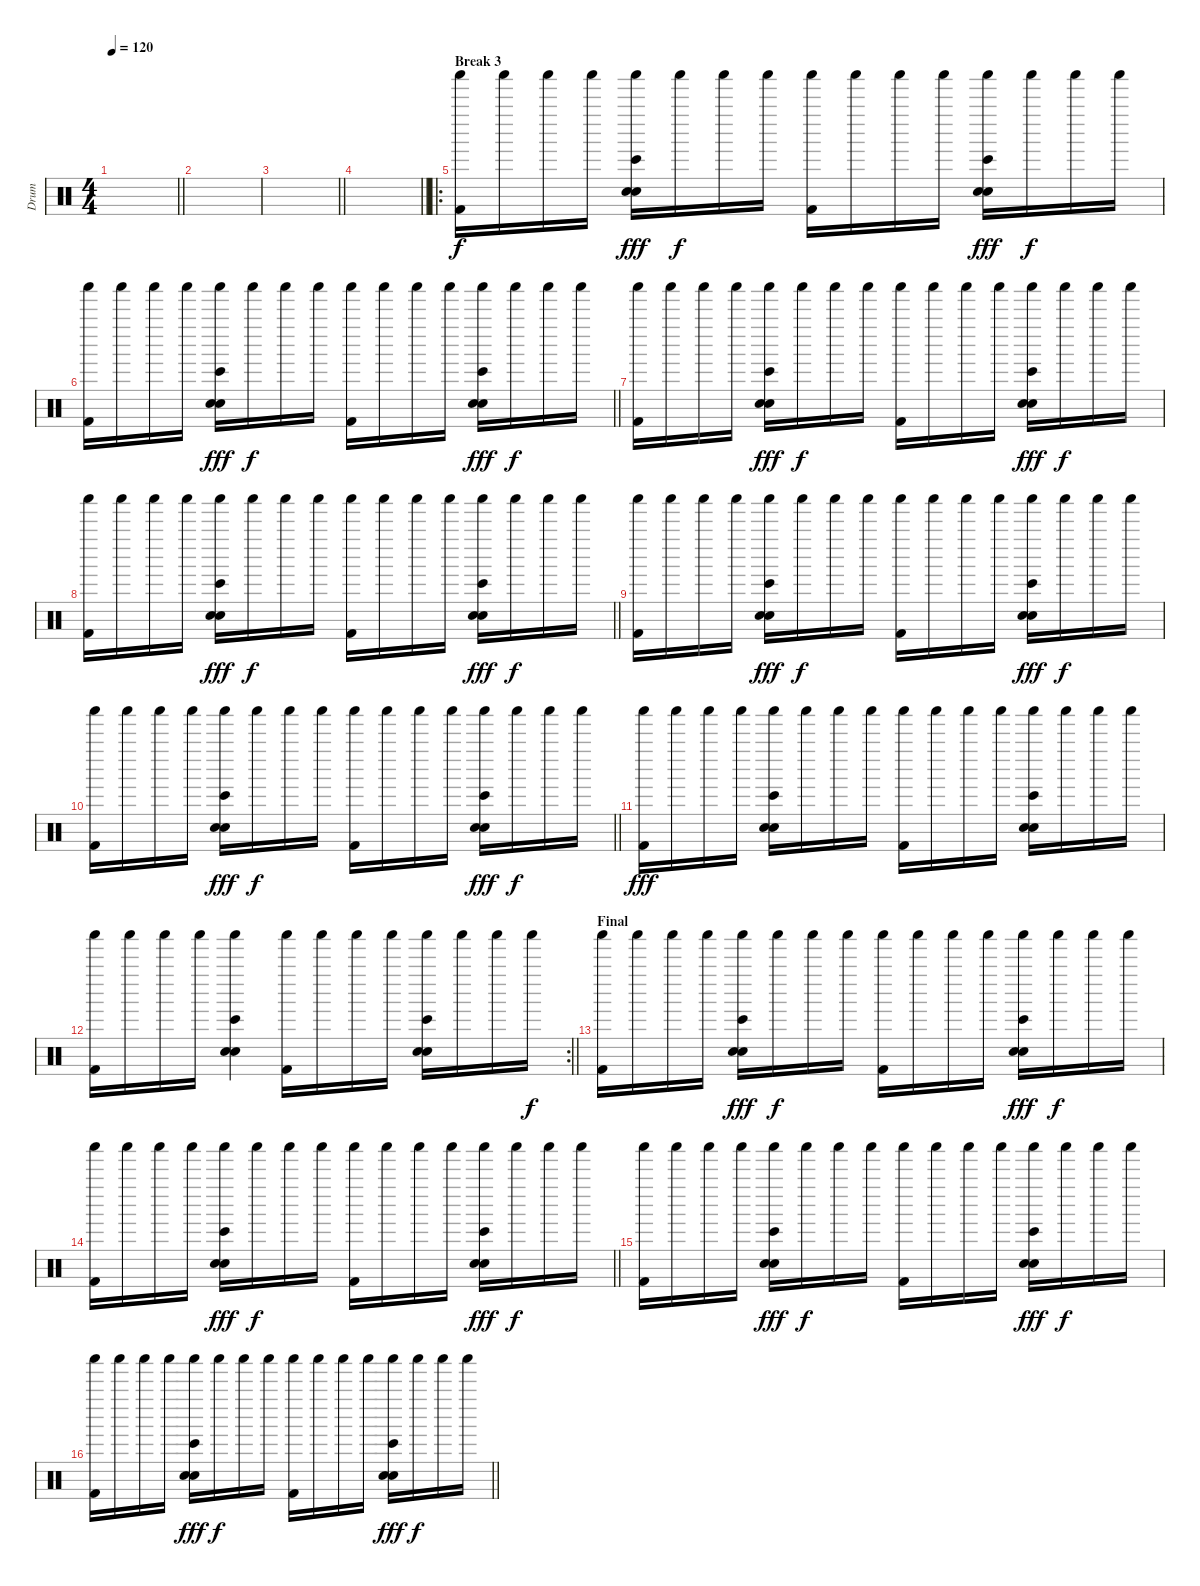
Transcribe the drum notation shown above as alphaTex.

\track ("Drum" "Drum") {instrument percussion}
\staff {score}
\articulation defaults
\ts (4 4)
\tempo 120
\clef neutral
\barLineRight lightlight
\ks c
|
|
\barLineRight lightlight
|
\barLineRight lightlight
|
\ro
\section ("" "Break 3")
("Kick (hit) 2" "Shaker (hit)").16 "Shaker (hit)".16 "Shaker (hit)".16 "Shaker (hit)".16 ("Electric Snare (hit)" "Shaker (hit)" "Hand Clap (hit)" "Bongo High (hit)").16{dy fff} "Shaker (hit)".16{dy f} "Shaker (hit)".16 "Shaker (hit)".16 ("Kick (hit) 2" "Shaker (hit)").16 "Shaker (hit)".16 "Shaker (hit)".16 "Shaker (hit)".16 ("Electric Snare (hit)" "Shaker (hit)" "Hand Clap (hit)" "Bongo High (hit)").16{dy fff} "Shaker (hit)".16{dy f} "Shaker (hit)".16 "Shaker (hit)".16 |
\barLineRight lightlight
("Kick (hit) 2" "Shaker (hit)").16 "Shaker (hit)".16 "Shaker (hit)".16 "Shaker (hit)".16 ("Electric Snare (hit)" "Shaker (hit)" "Hand Clap (hit)" "Bongo High (hit)").16{dy fff} "Shaker (hit)".16{dy f} "Shaker (hit)".16 "Shaker (hit)".16 ("Kick (hit) 2" "Shaker (hit)").16 "Shaker (hit)".16 "Shaker (hit)".16 "Shaker (hit)".16 ("Electric Snare (hit)" "Shaker (hit)" "Hand Clap (hit)" "Bongo High (hit)").16{dy fff} "Shaker (hit)".16{dy f} "Shaker (hit)".16 "Shaker (hit)".16 |
("Kick (hit) 2" "Shaker (hit)").16 "Shaker (hit)".16 "Shaker (hit)".16 "Shaker (hit)".16 ("Electric Snare (hit)" "Shaker (hit)" "Hand Clap (hit)" "Bongo High (hit)").16{dy fff} "Shaker (hit)".16{dy f} "Shaker (hit)".16 "Shaker (hit)".16 ("Kick (hit) 2" "Shaker (hit)").16 "Shaker (hit)".16 "Shaker (hit)".16 "Shaker (hit)".16 ("Electric Snare (hit)" "Shaker (hit)" "Hand Clap (hit)" "Bongo High (hit)").16{dy fff} "Shaker (hit)".16{dy f} "Shaker (hit)".16 "Shaker (hit)".16 |
\barLineRight lightlight
("Kick (hit) 2" "Shaker (hit)").16 "Shaker (hit)".16 "Shaker (hit)".16 "Shaker (hit)".16 ("Electric Snare (hit)" "Shaker (hit)" "Hand Clap (hit)" "Bongo High (hit)").16{dy fff} "Shaker (hit)".16{dy f} "Shaker (hit)".16 "Shaker (hit)".16 ("Kick (hit) 2" "Shaker (hit)").16 "Shaker (hit)".16 "Shaker (hit)".16 "Shaker (hit)".16 ("Electric Snare (hit)" "Shaker (hit)" "Hand Clap (hit)" "Bongo High (hit)").16{dy fff} "Shaker (hit)".16{dy f} "Shaker (hit)".16 "Shaker (hit)".16 |
("Kick (hit) 2" "Shaker (hit)").16 "Shaker (hit)".16 "Shaker (hit)".16 "Shaker (hit)".16 ("Electric Snare (hit)" "Shaker (hit)" "Hand Clap (hit)" "Bongo High (hit)").16{dy fff} "Shaker (hit)".16{dy f} "Shaker (hit)".16 "Shaker (hit)".16 ("Kick (hit) 2" "Shaker (hit)").16 "Shaker (hit)".16 "Shaker (hit)".16 "Shaker (hit)".16 ("Electric Snare (hit)" "Shaker (hit)" "Hand Clap (hit)" "Bongo High (hit)").16{dy fff} "Shaker (hit)".16{dy f} "Shaker (hit)".16 "Shaker (hit)".16 |
\barLineRight lightlight
("Kick (hit) 2" "Shaker (hit)").16 "Shaker (hit)".16 "Shaker (hit)".16 "Shaker (hit)".16 ("Electric Snare (hit)" "Shaker (hit)" "Hand Clap (hit)" "Bongo High (hit)").16{dy fff} "Shaker (hit)".16{dy f} "Shaker (hit)".16 "Shaker (hit)".16 ("Kick (hit) 2" "Shaker (hit)").16 "Shaker (hit)".16 "Shaker (hit)".16 "Shaker (hit)".16 ("Electric Snare (hit)" "Shaker (hit)" "Hand Clap (hit)" "Bongo High (hit)").16{dy fff} "Shaker (hit)".16{dy f} "Shaker (hit)".16 "Shaker (hit)".16 |
("Kick (hit) 2" "Shaker (hit)").16{dy fff} "Shaker (hit)".16 "Shaker (hit)".16 "Shaker (hit)".16 ("Electric Snare (hit)" "Shaker (hit)" "Hand Clap (hit)" "Bongo High (hit)").16 "Shaker (hit)".16 "Shaker (hit)".16 "Shaker (hit)".16 ("Kick (hit) 2" "Shaker (hit)").16 "Shaker (hit)".16 "Shaker (hit)".16 "Shaker (hit)".16 ("Electric Snare (hit)" "Shaker (hit)" "Hand Clap (hit)" "Bongo High (hit)").16 "Shaker (hit)".16 "Shaker (hit)".16 "Shaker (hit)".16 |
\rc 2
\barLineRight lightlight
("Kick (hit) 2" "Shaker (hit)").16 "Shaker (hit)".16 "Shaker (hit)".16 "Shaker (hit)".16 ("Electric Snare (hit)" "Shaker (hit)" "Hand Clap (hit)" "Bongo High (hit)").4 ("Kick (hit) 2" "Shaker (hit)").16 "Shaker (hit)".16 "Shaker (hit)".16 "Shaker (hit)".16 ("Electric Snare (hit)" "Shaker (hit)" "Hand Clap (hit)" "Bongo High (hit)").16 "Shaker (hit)".16 "Shaker (hit)".16 "Shaker (hit)".16{dy f} |
\section ("" "Final")
("Kick (hit) 2" "Shaker (hit)").16 "Shaker (hit)".16 "Shaker (hit)".16 "Shaker (hit)".16 ("Electric Snare (hit)" "Shaker (hit)" "Hand Clap (hit)" "Bongo High (hit)").16{dy fff} "Shaker (hit)".16{dy f} "Shaker (hit)".16 "Shaker (hit)".16 ("Kick (hit) 2" "Shaker (hit)").16 "Shaker (hit)".16 "Shaker (hit)".16 "Shaker (hit)".16 ("Electric Snare (hit)" "Shaker (hit)" "Hand Clap (hit)" "Bongo High (hit)").16{dy fff} "Shaker (hit)".16{dy f} "Shaker (hit)".16 "Shaker (hit)".16 |
\barLineRight lightlight
("Kick (hit) 2" "Shaker (hit)").16 "Shaker (hit)".16 "Shaker (hit)".16 "Shaker (hit)".16 ("Electric Snare (hit)" "Shaker (hit)" "Hand Clap (hit)" "Bongo High (hit)").16{dy fff} "Shaker (hit)".16{dy f} "Shaker (hit)".16 "Shaker (hit)".16 ("Kick (hit) 2" "Shaker (hit)").16 "Shaker (hit)".16 "Shaker (hit)".16 "Shaker (hit)".16 ("Electric Snare (hit)" "Shaker (hit)" "Hand Clap (hit)" "Bongo High (hit)").16{dy fff} "Shaker (hit)".16{dy f} "Shaker (hit)".16 "Shaker (hit)".16 |
("Kick (hit) 2" "Shaker (hit)").16 "Shaker (hit)".16 "Shaker (hit)".16 "Shaker (hit)".16 ("Electric Snare (hit)" "Shaker (hit)" "Hand Clap (hit)" "Bongo High (hit)").16{dy fff} "Shaker (hit)".16{dy f} "Shaker (hit)".16 "Shaker (hit)".16 ("Kick (hit) 2" "Shaker (hit)").16 "Shaker (hit)".16 "Shaker (hit)".16 "Shaker (hit)".16 ("Electric Snare (hit)" "Shaker (hit)" "Hand Clap (hit)" "Bongo High (hit)").16{dy fff} "Shaker (hit)".16{dy f} "Shaker (hit)".16 "Shaker (hit)".16 |
\barLineRight lightlight
("Kick (hit) 2" "Shaker (hit)").16 "Shaker (hit)".16 "Shaker (hit)".16 "Shaker (hit)".16 ("Electric Snare (hit)" "Shaker (hit)" "Hand Clap (hit)" "Bongo High (hit)").16{dy fff} "Shaker (hit)".16{dy f} "Shaker (hit)".16 "Shaker (hit)".16 ("Kick (hit) 2" "Shaker (hit)").16 "Shaker (hit)".16 "Shaker (hit)".16 "Shaker (hit)".16 ("Electric Snare (hit)" "Shaker (hit)" "Hand Clap (hit)" "Bongo High (hit)").16{dy fff} "Shaker (hit)".16{dy f} "Shaker (hit)".16 "Shaker (hit)".16
